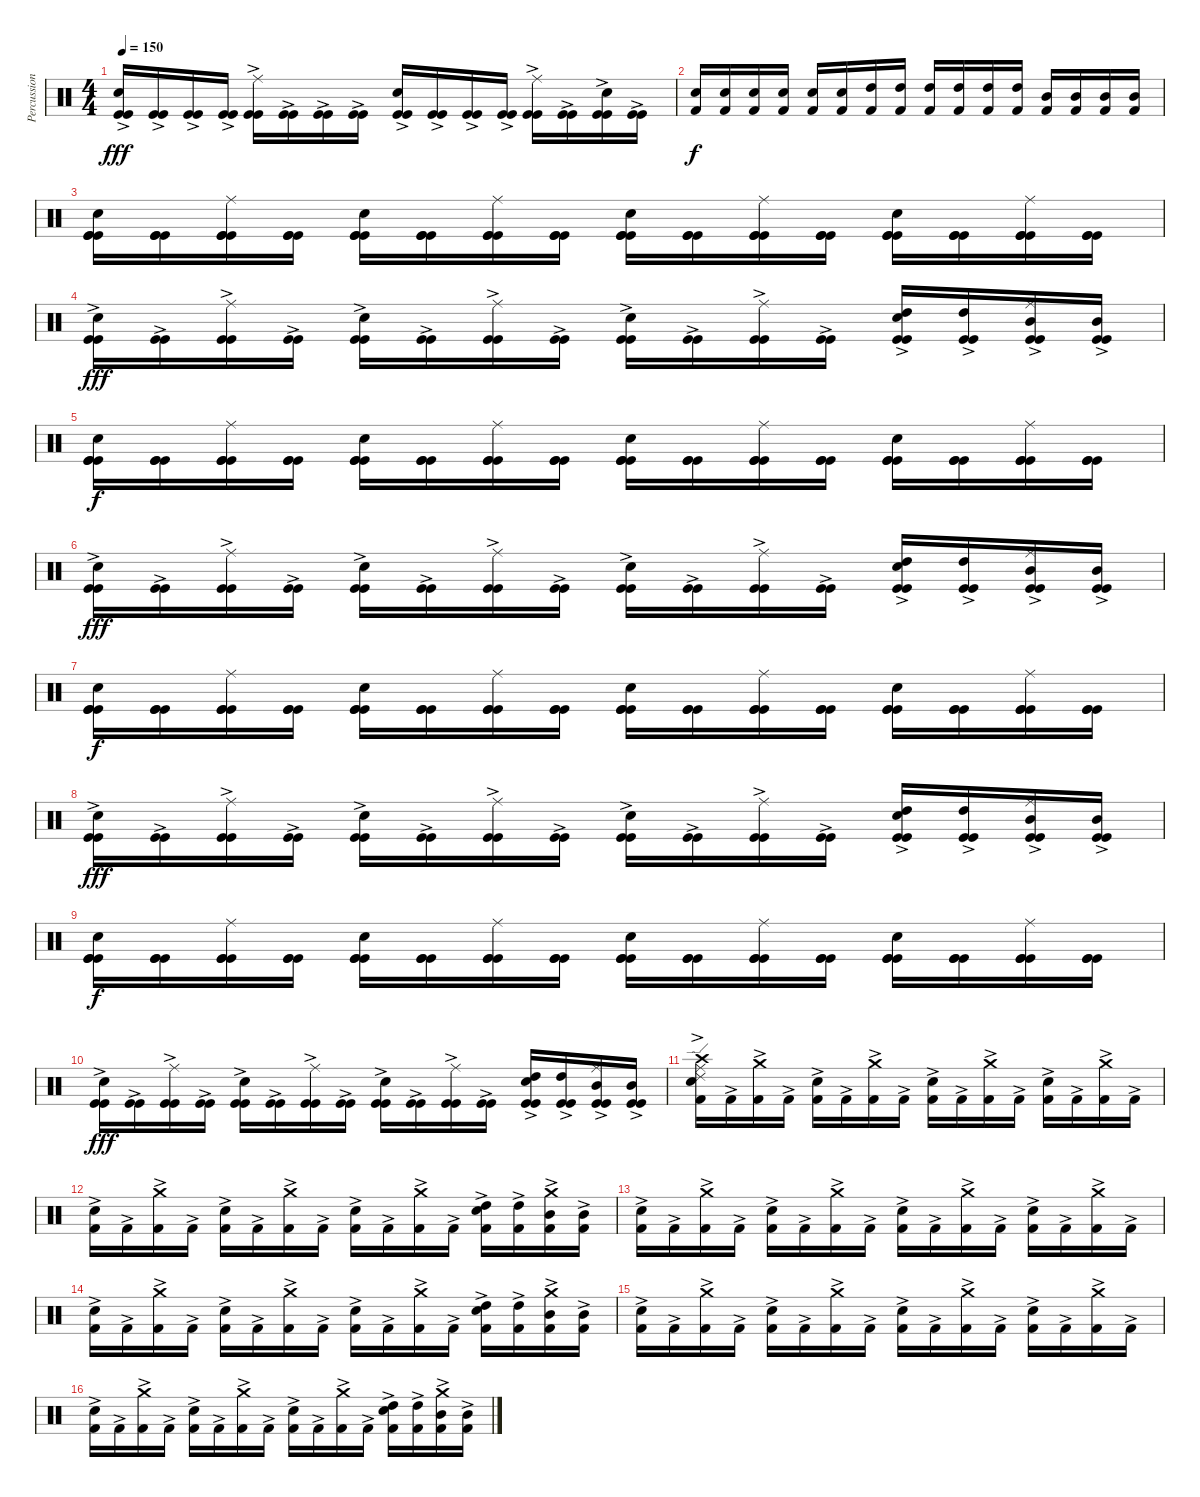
\track ("Percussions" "Percussion") {instrument percussion}
\staff {score}
\articulation defaults
\ts (4 4)
\tempo 150
\clef neutral
\ks c
("Kick (hit)"{ac} "Electric Snare (hit)" "Kick (hit)"{ac}).16{dy fff} ("Kick (hit)"{ac} "Kick (hit)"{ac}).16 ("Kick (hit)"{ac} "Kick (hit)"{ac}).16 ("Kick (hit)"{ac} "Kick (hit)"{ac}).16 ("Kick (hit)"{ac} "Ride (middle)" "Kick (hit)"{ac}).16 ("Kick (hit)"{ac} "Kick (hit)"{ac}).16 ("Kick (hit)"{ac} "Kick (hit)"{ac}).16 ("Kick (hit)"{ac} "Kick (hit)"{ac}).16 ("Kick (hit)"{ac} "Electric Snare (hit)" "Kick (hit)"{ac}).16 ("Kick (hit)"{ac} "Kick (hit)"{ac}).16 ("Kick (hit)"{ac} "Kick (hit)"{ac}).16 ("Kick (hit)"{ac} "Kick (hit)"{ac}).16 ("Kick (hit)"{ac} "Ride (middle)" "Kick (hit)"{ac}).16 ("Kick (hit)"{ac} "Kick (hit)"{ac}).16 ("Kick (hit)"{ac} "Electric Snare (hit)" "Kick (hit)"{ac}).16 ("Kick (hit)"{ac} "Kick (hit)"{ac}).16 |
("Electric Snare (hit)" "Kick (hit) 2").16{dy f} ("Electric Snare (hit)" "Kick (hit) 2").16 ("Electric Snare (hit)" "Kick (hit) 2").16 ("Electric Snare (hit)" "Kick (hit) 2").16 ("Electric Snare (hit)" "Kick (hit) 2").16 ("Electric Snare (hit)" "Kick (hit) 2").16 ("High Tom (hit)" "Kick (hit) 2").16 ("High Tom (hit)" "Kick (hit) 2").16 ("High Tom (hit)" "Kick (hit) 2").16 ("High Tom (hit)" "Kick (hit) 2").16 ("High Tom (hit)" "Kick (hit) 2").16 ("High Tom (hit)" "Kick (hit) 2").16 ("Mid Tom (hit)" "Kick (hit) 2").16 ("Mid Tom (hit)" "Kick (hit) 2").16 ("Mid Tom (hit)" "Kick (hit) 2").16 ("Mid Tom (hit)" "Kick (hit) 2").16 |
("Kick (hit)" "Kick (hit)" "Electric Snare (hit)" "Kick (hit)").16 ("Kick (hit)" "Kick (hit)" "Kick (hit)").16 ("Kick (hit)" "Kick (hit)" "Ride (middle)" "Kick (hit)").16 ("Kick (hit)" "Kick (hit)" "Kick (hit)").16 ("Kick (hit)" "Kick (hit)" "Electric Snare (hit)" "Kick (hit)").16 ("Kick (hit)" "Kick (hit)" "Kick (hit)").16 ("Kick (hit)" "Kick (hit)" "Ride (middle)" "Kick (hit)").16 ("Kick (hit)" "Kick (hit)" "Kick (hit)").16 ("Kick (hit)" "Kick (hit)" "Electric Snare (hit)" "Kick (hit)").16 ("Kick (hit)" "Kick (hit)" "Kick (hit)").16 ("Kick (hit)" "Kick (hit)" "Ride (middle)" "Kick (hit)").16 ("Kick (hit)" "Kick (hit)" "Kick (hit)").16 ("Kick (hit)" "Kick (hit)" "Electric Snare (hit)" "Kick (hit)").16 ("Kick (hit)" "Kick (hit)" "Kick (hit)").16 ("Kick (hit)" "Kick (hit)" "Ride (middle)" "Kick (hit)").16 ("Kick (hit)" "Kick (hit)" "Kick (hit)").16 |
("Kick (hit)"{ac} "Electric Snare (hit)" "Kick (hit)"{ac}).16{dy fff} ("Kick (hit)"{ac} "Kick (hit)"{ac}).16 ("Kick (hit)"{ac} "Ride (middle)" "Kick (hit)"{ac}).16 ("Kick (hit)"{ac} "Kick (hit)"{ac}).16 ("Kick (hit)"{ac} "Electric Snare (hit)" "Kick (hit)"{ac}).16 ("Kick (hit)"{ac} "Kick (hit)"{ac}).16 ("Kick (hit)"{ac} "Ride (middle)" "Kick (hit)"{ac}).16 ("Kick (hit)"{ac} "Kick (hit)"{ac}).16 ("Kick (hit)"{ac} "Electric Snare (hit)" "Kick (hit)"{ac}).16 ("Kick (hit)"{ac} "Kick (hit)"{ac}).16 ("Kick (hit)"{ac} "Ride (middle)" "Kick (hit)"{ac}).16 ("Kick (hit)"{ac} "Kick (hit)"{ac}).16 ("Kick (hit)"{ac} "High Tom (hit)" "Electric Snare (hit)" "Kick (hit)"{ac}).16 ("Kick (hit)"{ac} "High Tom (hit)" "Kick (hit)"{ac}).16 ("Kick (hit)"{ac} "Mid Tom (hit)" "Ride (middle)" "Kick (hit)"{ac}).16 ("Kick (hit)"{ac} "Mid Tom (hit)" "Kick (hit)"{ac}).16 |
("Kick (hit)" "Kick (hit)" "Electric Snare (hit)" "Kick (hit)").16{dy f} ("Kick (hit)" "Kick (hit)" "Kick (hit)").16 ("Kick (hit)" "Kick (hit)" "Ride (middle)" "Kick (hit)").16 ("Kick (hit)" "Kick (hit)" "Kick (hit)").16 ("Kick (hit)" "Kick (hit)" "Electric Snare (hit)" "Kick (hit)").16 ("Kick (hit)" "Kick (hit)" "Kick (hit)").16 ("Kick (hit)" "Kick (hit)" "Ride (middle)" "Kick (hit)").16 ("Kick (hit)" "Kick (hit)" "Kick (hit)").16 ("Kick (hit)" "Kick (hit)" "Electric Snare (hit)" "Kick (hit)").16 ("Kick (hit)" "Kick (hit)" "Kick (hit)").16 ("Kick (hit)" "Kick (hit)" "Ride (middle)" "Kick (hit)").16 ("Kick (hit)" "Kick (hit)" "Kick (hit)").16 ("Kick (hit)" "Kick (hit)" "Electric Snare (hit)" "Kick (hit)").16 ("Kick (hit)" "Kick (hit)" "Kick (hit)").16 ("Kick (hit)" "Kick (hit)" "Ride (middle)" "Kick (hit)").16 ("Kick (hit)" "Kick (hit)" "Kick (hit)").16 |
("Kick (hit)"{ac} "Electric Snare (hit)" "Kick (hit)"{ac}).16{dy fff} ("Kick (hit)"{ac} "Kick (hit)"{ac}).16 ("Kick (hit)"{ac} "Ride (middle)" "Kick (hit)"{ac}).16 ("Kick (hit)"{ac} "Kick (hit)"{ac}).16 ("Kick (hit)"{ac} "Electric Snare (hit)" "Kick (hit)"{ac}).16 ("Kick (hit)"{ac} "Kick (hit)"{ac}).16 ("Kick (hit)"{ac} "Ride (middle)" "Kick (hit)"{ac}).16 ("Kick (hit)"{ac} "Kick (hit)"{ac}).16 ("Kick (hit)"{ac} "Electric Snare (hit)" "Kick (hit)"{ac}).16 ("Kick (hit)"{ac} "Kick (hit)"{ac}).16 ("Kick (hit)"{ac} "Ride (middle)" "Kick (hit)"{ac}).16 ("Kick (hit)"{ac} "Kick (hit)"{ac}).16 ("Kick (hit)"{ac} "High Tom (hit)" "Electric Snare (hit)" "Kick (hit)"{ac}).16 ("Kick (hit)"{ac} "High Tom (hit)" "Kick (hit)"{ac}).16 ("Kick (hit)"{ac} "Mid Tom (hit)" "Ride (middle)" "Kick (hit)"{ac}).16 ("Kick (hit)"{ac} "Mid Tom (hit)" "Kick (hit)"{ac}).16 |
("Kick (hit)" "Kick (hit)" "Electric Snare (hit)" "Kick (hit)").16{dy f} ("Kick (hit)" "Kick (hit)" "Kick (hit)").16 ("Kick (hit)" "Kick (hit)" "Ride (middle)" "Kick (hit)").16 ("Kick (hit)" "Kick (hit)" "Kick (hit)").16 ("Kick (hit)" "Kick (hit)" "Electric Snare (hit)" "Kick (hit)").16 ("Kick (hit)" "Kick (hit)" "Kick (hit)").16 ("Kick (hit)" "Kick (hit)" "Ride (middle)" "Kick (hit)").16 ("Kick (hit)" "Kick (hit)" "Kick (hit)").16 ("Kick (hit)" "Kick (hit)" "Electric Snare (hit)" "Kick (hit)").16 ("Kick (hit)" "Kick (hit)" "Kick (hit)").16 ("Kick (hit)" "Kick (hit)" "Ride (middle)" "Kick (hit)").16 ("Kick (hit)" "Kick (hit)" "Kick (hit)").16 ("Kick (hit)" "Kick (hit)" "Electric Snare (hit)" "Kick (hit)").16 ("Kick (hit)" "Kick (hit)" "Kick (hit)").16 ("Kick (hit)" "Kick (hit)" "Ride (middle)" "Kick (hit)").16 ("Kick (hit)" "Kick (hit)" "Kick (hit)").16 |
("Kick (hit)"{ac} "Electric Snare (hit)" "Kick (hit)"{ac}).16{dy fff} ("Kick (hit)"{ac} "Kick (hit)"{ac}).16 ("Kick (hit)"{ac} "Ride (middle)" "Kick (hit)"{ac}).16 ("Kick (hit)"{ac} "Kick (hit)"{ac}).16 ("Kick (hit)"{ac} "Electric Snare (hit)" "Kick (hit)"{ac}).16 ("Kick (hit)"{ac} "Kick (hit)"{ac}).16 ("Kick (hit)"{ac} "Ride (middle)" "Kick (hit)"{ac}).16 ("Kick (hit)"{ac} "Kick (hit)"{ac}).16 ("Kick (hit)"{ac} "Electric Snare (hit)" "Kick (hit)"{ac}).16 ("Kick (hit)"{ac} "Kick (hit)"{ac}).16 ("Kick (hit)"{ac} "Ride (middle)" "Kick (hit)"{ac}).16 ("Kick (hit)"{ac} "Kick (hit)"{ac}).16 ("Kick (hit)"{ac} "High Tom (hit)" "Electric Snare (hit)" "Kick (hit)"{ac}).16 ("Kick (hit)"{ac} "High Tom (hit)" "Kick (hit)"{ac}).16 ("Kick (hit)"{ac} "Mid Tom (hit)" "Ride (middle)" "Kick (hit)"{ac}).16 ("Kick (hit)"{ac} "Mid Tom (hit)" "Kick (hit)"{ac}).16 |
("Kick (hit)" "Kick (hit)" "Electric Snare (hit)" "Kick (hit)").16{dy f} ("Kick (hit)" "Kick (hit)" "Kick (hit)").16 ("Kick (hit)" "Kick (hit)" "Ride (middle)" "Kick (hit)").16 ("Kick (hit)" "Kick (hit)" "Kick (hit)").16 ("Kick (hit)" "Kick (hit)" "Electric Snare (hit)" "Kick (hit)").16 ("Kick (hit)" "Kick (hit)" "Kick (hit)").16 ("Kick (hit)" "Kick (hit)" "Ride (middle)" "Kick (hit)").16 ("Kick (hit)" "Kick (hit)" "Kick (hit)").16 ("Kick (hit)" "Kick (hit)" "Electric Snare (hit)" "Kick (hit)").16 ("Kick (hit)" "Kick (hit)" "Kick (hit)").16 ("Kick (hit)" "Kick (hit)" "Ride (middle)" "Kick (hit)").16 ("Kick (hit)" "Kick (hit)" "Kick (hit)").16 ("Kick (hit)" "Kick (hit)" "Electric Snare (hit)" "Kick (hit)").16 ("Kick (hit)" "Kick (hit)" "Kick (hit)").16 ("Kick (hit)" "Kick (hit)" "Ride (middle)" "Kick (hit)").16 ("Kick (hit)" "Kick (hit)" "Kick (hit)").16 |
("Kick (hit)"{ac} "Electric Snare (hit)" "Kick (hit)"{ac}).16{dy fff} ("Kick (hit)"{ac} "Kick (hit)"{ac}).16 ("Kick (hit)"{ac} "Ride (middle)" "Kick (hit)"{ac}).16 ("Kick (hit)"{ac} "Kick (hit)"{ac}).16 ("Kick (hit)"{ac} "Electric Snare (hit)" "Kick (hit)"{ac}).16 ("Kick (hit)"{ac} "Kick (hit)"{ac}).16 ("Kick (hit)"{ac} "Ride (middle)" "Kick (hit)"{ac}).16 ("Kick (hit)"{ac} "Kick (hit)"{ac}).16 ("Kick (hit)"{ac} "Electric Snare (hit)" "Kick (hit)"{ac}).16 ("Kick (hit)"{ac} "Kick (hit)"{ac}).16 ("Kick (hit)"{ac} "Ride (middle)" "Kick (hit)"{ac}).16 ("Kick (hit)"{ac} "Kick (hit)"{ac}).16 ("Kick (hit)"{ac} "High Tom (hit)"{ac} "Electric Snare (hit)" "Kick (hit)"{ac}).16 ("Kick (hit)"{ac} "High Tom (hit)"{ac} "Kick (hit)"{ac}).16 ("Kick (hit)"{ac} "Mid Tom (hit)"{ac} "Ride (middle)" "Kick (hit)"{ac}).16 ("Kick (hit)"{ac} "Mid Tom (hit)"{ac} "Kick (hit)"{ac}).16 |
("Crash high (hit)" "Ride (edge) 2" "Ride (middle)" "Electric Snare (hit)" "Kick (hit) 2"{ac}).16 "Kick (hit) 2"{ac}.16 ("Crash medium (hit)" "Kick (hit) 2"{ac}).16 "Kick (hit) 2"{ac}.16 ("Electric Snare (hit)" "Kick (hit) 2"{ac}).16 "Kick (hit) 2"{ac}.16 ("Crash medium (hit)" "Kick (hit) 2"{ac}).16 "Kick (hit) 2"{ac}.16 ("Electric Snare (hit)" "Kick (hit) 2"{ac}).16 "Kick (hit) 2"{ac}.16 ("Crash medium (hit)" "Kick (hit) 2"{ac}).16 "Kick (hit) 2"{ac}.16 ("Electric Snare (hit)" "Kick (hit) 2"{ac}).16 "Kick (hit) 2"{ac}.16 ("Crash medium (hit)" "Kick (hit) 2"{ac}).16 "Kick (hit) 2"{ac}.16 |
("Electric Snare (hit)" "Kick (hit) 2"{ac}).16 "Kick (hit) 2"{ac}.16 ("Crash medium (hit)" "Kick (hit) 2"{ac}).16 "Kick (hit) 2"{ac}.16 ("Electric Snare (hit)" "Kick (hit) 2"{ac}).16 "Kick (hit) 2"{ac}.16 ("Crash medium (hit)" "Kick (hit) 2"{ac}).16 "Kick (hit) 2"{ac}.16 ("Electric Snare (hit)" "Kick (hit) 2"{ac}).16 "Kick (hit) 2"{ac}.16 ("Crash medium (hit)" "Kick (hit) 2"{ac}).16 "Kick (hit) 2"{ac}.16 ("High Tom (hit)" "Electric Snare (hit)" "Kick (hit) 2"{ac}).16 ("High Tom (hit)" "Kick (hit) 2"{ac}).16 ("Mid Tom (hit)" "Crash medium (hit)" "Kick (hit) 2"{ac}).16 ("Mid Tom (hit)" "Kick (hit) 2"{ac}).16 |
("Electric Snare (hit)" "Kick (hit) 2"{ac}).16 "Kick (hit) 2"{ac}.16 ("Crash medium (hit)" "Kick (hit) 2"{ac}).16 "Kick (hit) 2"{ac}.16 ("Electric Snare (hit)" "Kick (hit) 2"{ac}).16 "Kick (hit) 2"{ac}.16 ("Crash medium (hit)" "Kick (hit) 2"{ac}).16 "Kick (hit) 2"{ac}.16 ("Electric Snare (hit)" "Kick (hit) 2"{ac}).16 "Kick (hit) 2"{ac}.16 ("Crash medium (hit)" "Kick (hit) 2"{ac}).16 "Kick (hit) 2"{ac}.16 ("Electric Snare (hit)" "Kick (hit) 2"{ac}).16 "Kick (hit) 2"{ac}.16 ("Crash medium (hit)" "Kick (hit) 2"{ac}).16 "Kick (hit) 2"{ac}.16 |
("Electric Snare (hit)" "Kick (hit) 2"{ac}).16 "Kick (hit) 2"{ac}.16 ("Crash medium (hit)" "Kick (hit) 2"{ac}).16 "Kick (hit) 2"{ac}.16 ("Electric Snare (hit)" "Kick (hit) 2"{ac}).16 "Kick (hit) 2"{ac}.16 ("Crash medium (hit)" "Kick (hit) 2"{ac}).16 "Kick (hit) 2"{ac}.16 ("Electric Snare (hit)" "Kick (hit) 2"{ac}).16 "Kick (hit) 2"{ac}.16 ("Crash medium (hit)" "Kick (hit) 2"{ac}).16 "Kick (hit) 2"{ac}.16 ("High Tom (hit)" "Electric Snare (hit)" "Kick (hit) 2"{ac}).16 ("High Tom (hit)" "Kick (hit) 2"{ac}).16 ("Mid Tom (hit)" "Crash medium (hit)" "Kick (hit) 2"{ac}).16 ("Mid Tom (hit)" "Kick (hit) 2"{ac}).16 |
("Electric Snare (hit)" "Kick (hit) 2"{ac}).16 "Kick (hit) 2"{ac}.16 ("Crash medium (hit)" "Kick (hit) 2"{ac}).16 "Kick (hit) 2"{ac}.16 ("Electric Snare (hit)" "Kick (hit) 2"{ac}).16 "Kick (hit) 2"{ac}.16 ("Crash medium (hit)" "Kick (hit) 2"{ac}).16 "Kick (hit) 2"{ac}.16 ("Electric Snare (hit)" "Kick (hit) 2"{ac}).16 "Kick (hit) 2"{ac}.16 ("Crash medium (hit)" "Kick (hit) 2"{ac}).16 "Kick (hit) 2"{ac}.16 ("Electric Snare (hit)" "Kick (hit) 2"{ac}).16 "Kick (hit) 2"{ac}.16 ("Crash medium (hit)" "Kick (hit) 2"{ac}).16 "Kick (hit) 2"{ac}.16 |
("Electric Snare (hit)" "Kick (hit) 2"{ac}).16 "Kick (hit) 2"{ac}.16 ("Crash medium (hit)" "Kick (hit) 2"{ac}).16 "Kick (hit) 2"{ac}.16 ("Electric Snare (hit)" "Kick (hit) 2"{ac}).16 "Kick (hit) 2"{ac}.16 ("Crash medium (hit)" "Kick (hit) 2"{ac}).16 "Kick (hit) 2"{ac}.16 ("Electric Snare (hit)" "Kick (hit) 2"{ac}).16 "Kick (hit) 2"{ac}.16 ("Crash medium (hit)" "Kick (hit) 2"{ac}).16 "Kick (hit) 2"{ac}.16 ("High Tom (hit)" "Electric Snare (hit)" "Kick (hit) 2"{ac}).16 ("High Tom (hit)" "Kick (hit) 2"{ac}).16 ("Mid Tom (hit)" "Crash medium (hit)" "Kick (hit) 2"{ac}).16 ("Mid Tom (hit)" "Kick (hit) 2"{ac}).16
